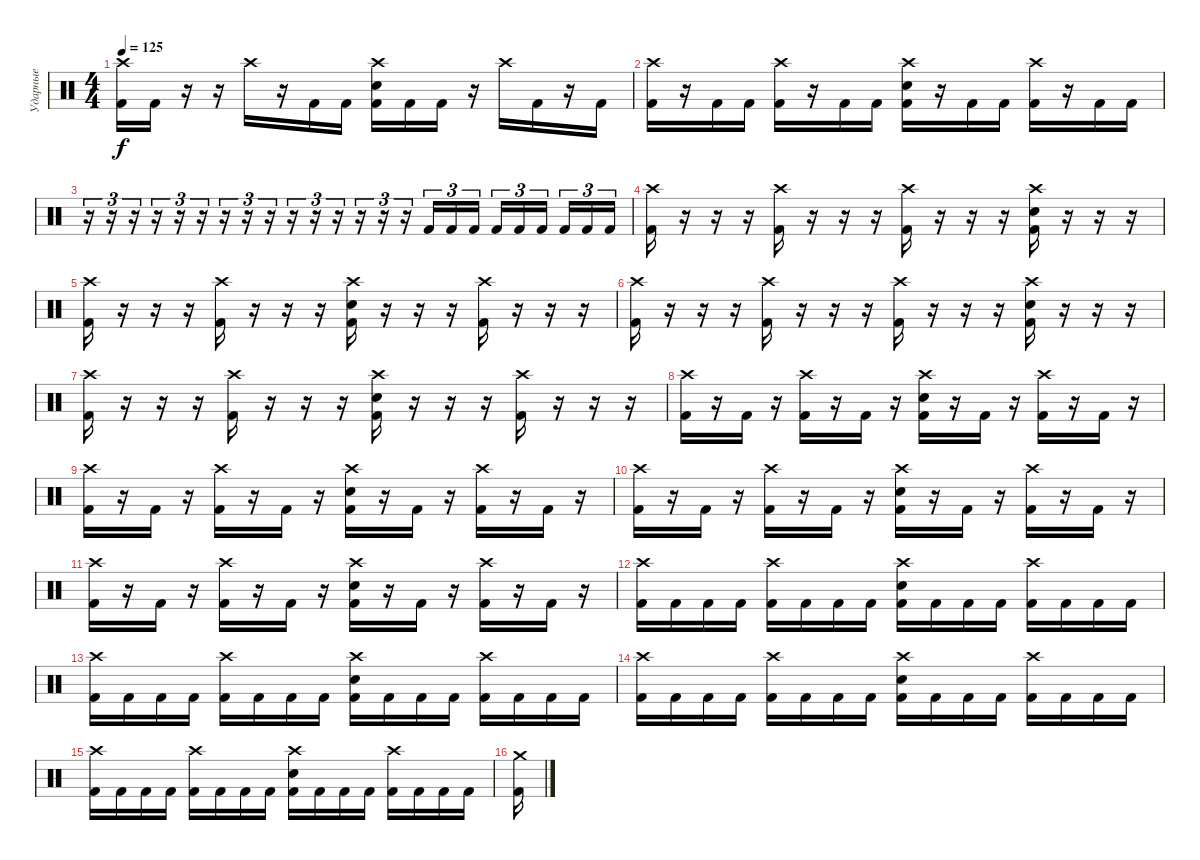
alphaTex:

\track ("Ударные" "Ударные") {instrument percussion}
\staff {score}
\articulation defaults
\ts (4 4)
\tempo 125
\clef neutral
\ks c
("Crash high (hit)" "Kick (hit) 2").16{dy f} "Kick (hit) 2".16 r.16 r.16 "Crash high (hit)".16 r.16 "Kick (hit) 2".16 "Kick (hit) 2".16 ("Crash high (hit)" "Electric Snare (hit)" "Kick (hit) 2").16 "Kick (hit) 2".16 "Kick (hit) 2".16 r.16 "Crash high (hit)".16 "Kick (hit) 2".16 r.16 "Kick (hit) 2".16 |
("Crash high (hit)" "Kick (hit) 2").16 r.16 "Kick (hit) 2".16 "Kick (hit) 2".16 ("Crash high (hit)" "Kick (hit) 2").16 r.16 "Kick (hit) 2".16 "Kick (hit) 2".16 ("Crash high (hit)" "Electric Snare (hit)" "Kick (hit) 2").16 r.16 "Kick (hit) 2".16 "Kick (hit) 2".16 ("Crash high (hit)" "Kick (hit) 2").16 r.16 "Kick (hit) 2".16 "Kick (hit) 2".16 |
r.16{tu (3 2)} r.16{tu (3 2)} r.16{tu (3 2)} r.16{tu (3 2)} r.16{tu (3 2)} r.16{tu (3 2)} r.16{tu (3 2)} r.16{tu (3 2)} r.16{tu (3 2)} r.16{tu (3 2)} r.16{tu (3 2)} r.16{tu (3 2)} r.16{tu (3 2)} r.16{tu (3 2)} r.16{tu (3 2)} "Kick (hit) 2".16{tu (3 2)} "Kick (hit) 2".16{tu (3 2)} "Kick (hit) 2".16{tu (3 2)} "Kick (hit) 2".16{tu (3 2)} "Kick (hit) 2".16{tu (3 2)} "Kick (hit) 2".16{tu (3 2) beam splitsecondary} "Kick (hit) 2".16{tu (3 2)} "Kick (hit) 2".16{tu (3 2)} "Kick (hit) 2".16{tu (3 2)} |
("Crash high (hit)" "Kick (hit) 2").16 r.16 r.16 r.16 ("Crash high (hit)" "Kick (hit) 2").16 r.16 r.16 r.16 ("Crash high (hit)" "Kick (hit) 2").16 r.16 r.16 r.16 ("Crash high (hit)" "Electric Snare (hit)" "Kick (hit) 2").16 r.16 r.16 r.16 |
("Crash high (hit)" "Kick (hit) 2").16 r.16 r.16 r.16 ("Crash high (hit)" "Kick (hit) 2").16 r.16 r.16 r.16 ("Crash high (hit)" "Electric Snare (hit)" "Kick (hit) 2").16 r.16 r.16 r.16 ("Crash high (hit)" "Kick (hit) 2").16 r.16 r.16 r.16 |
("Crash high (hit)" "Kick (hit) 2").16 r.16 r.16 r.16 ("Crash high (hit)" "Kick (hit) 2").16 r.16 r.16 r.16 ("Crash high (hit)" "Kick (hit) 2").16 r.16 r.16 r.16 ("Crash high (hit)" "Electric Snare (hit)" "Kick (hit) 2").16 r.16 r.16 r.16 |
("Crash high (hit)" "Kick (hit) 2").16 r.16 r.16 r.16 ("Crash high (hit)" "Kick (hit) 2").16 r.16 r.16 r.16 ("Crash high (hit)" "Electric Snare (hit)" "Kick (hit) 2").16 r.16 r.16 r.16 ("Crash high (hit)" "Kick (hit) 2").16 r.16 r.16 r.16 |
("Crash high (hit)" "Kick (hit) 2").16 r.16 "Kick (hit) 2".16 r.16 ("Crash high (hit)" "Kick (hit) 2").16 r.16 "Kick (hit) 2".16 r.16 ("Crash high (hit)" "Electric Snare (hit)" "Kick (hit) 2").16 r.16 "Kick (hit) 2".16 r.16 ("Crash high (hit)" "Kick (hit) 2").16 r.16 "Kick (hit) 2".16 r.16 |
("Crash high (hit)" "Kick (hit) 2").16 r.16 "Kick (hit) 2".16 r.16 ("Crash high (hit)" "Kick (hit) 2").16 r.16 "Kick (hit) 2".16 r.16 ("Crash high (hit)" "Electric Snare (hit)" "Kick (hit) 2").16 r.16 "Kick (hit) 2".16 r.16 ("Crash high (hit)" "Kick (hit) 2").16 r.16 "Kick (hit) 2".16 r.16 |
("Crash high (hit)" "Kick (hit) 2").16 r.16 "Kick (hit) 2".16 r.16 ("Crash high (hit)" "Kick (hit) 2").16 r.16 "Kick (hit) 2".16 r.16 ("Crash high (hit)" "Electric Snare (hit)" "Kick (hit) 2").16 r.16 "Kick (hit) 2".16 r.16 ("Crash high (hit)" "Kick (hit) 2").16 r.16 "Kick (hit) 2".16 r.16 |
("Crash high (hit)" "Kick (hit) 2").16 r.16 "Kick (hit) 2".16 r.16 ("Crash high (hit)" "Kick (hit) 2").16 r.16 "Kick (hit) 2".16 r.16 ("Crash high (hit)" "Electric Snare (hit)" "Kick (hit) 2").16 r.16 "Kick (hit) 2".16 r.16 ("Crash high (hit)" "Kick (hit) 2").16 r.16 "Kick (hit) 2".16 r.16 |
("Crash high (hit)" "Kick (hit) 2").16 "Kick (hit) 2".16 "Kick (hit) 2".16 "Kick (hit) 2".16 ("Crash high (hit)" "Kick (hit) 2").16 "Kick (hit) 2".16 "Kick (hit) 2".16 "Kick (hit) 2".16 ("Crash high (hit)" "Electric Snare (hit)" "Kick (hit) 2").16 "Kick (hit) 2".16 "Kick (hit) 2".16 "Kick (hit) 2".16 ("Crash high (hit)" "Kick (hit) 2").16 "Kick (hit) 2".16 "Kick (hit) 2".16 "Kick (hit) 2".16 |
("Crash high (hit)" "Kick (hit) 2").16 "Kick (hit) 2".16 "Kick (hit) 2".16 "Kick (hit) 2".16 ("Crash high (hit)" "Kick (hit) 2").16 "Kick (hit) 2".16 "Kick (hit) 2".16 "Kick (hit) 2".16 ("Crash high (hit)" "Electric Snare (hit)" "Kick (hit) 2").16 "Kick (hit) 2".16 "Kick (hit) 2".16 "Kick (hit) 2".16 ("Crash high (hit)" "Kick (hit) 2").16 "Kick (hit) 2".16 "Kick (hit) 2".16 "Kick (hit) 2".16 |
("Crash high (hit)" "Kick (hit) 2").16 "Kick (hit) 2".16 "Kick (hit) 2".16 "Kick (hit) 2".16 ("Crash high (hit)" "Kick (hit) 2").16 "Kick (hit) 2".16 "Kick (hit) 2".16 "Kick (hit) 2".16 ("Crash high (hit)" "Electric Snare (hit)" "Kick (hit) 2").16 "Kick (hit) 2".16 "Kick (hit) 2".16 "Kick (hit) 2".16 ("Crash high (hit)" "Kick (hit) 2").16 "Kick (hit) 2".16 "Kick (hit) 2".16 "Kick (hit) 2".16 |
("Crash high (hit)" "Kick (hit) 2").16 "Kick (hit) 2".16 "Kick (hit) 2".16 "Kick (hit) 2".16 ("Crash high (hit)" "Kick (hit) 2").16 "Kick (hit) 2".16 "Kick (hit) 2".16 "Kick (hit) 2".16 ("Crash high (hit)" "Electric Snare (hit)" "Kick (hit) 2").16 "Kick (hit) 2".16 "Kick (hit) 2".16 "Kick (hit) 2".16 ("Crash high (hit)" "Kick (hit) 2").16 "Kick (hit) 2".16 "Kick (hit) 2".16 "Kick (hit) 2".16 |
("Crash medium (hit)" "Kick (hit) 2").16
